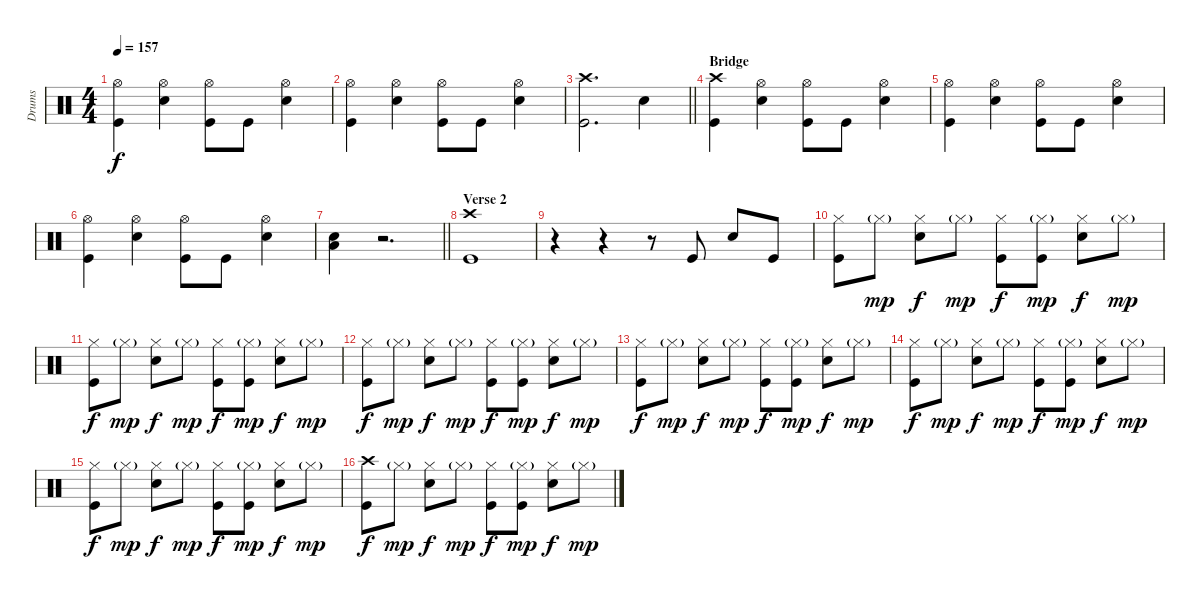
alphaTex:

\track ("Drums" "Drums") {instrument percussion}
\staff {score}
\articulation defaults
\ts (4 4)
\tempo 157
\clef neutral
\ks c
("Hi-Hat (open)" "Kick (hit)").4{dy f} ("Hi-Hat (open)" "Snare (hit) 2").4 ("Hi-Hat (open)" "Kick (hit)").8 "Kick (hit)".8 ("Hi-Hat (open)" "Snare (hit) 2").4 |
("Hi-Hat (open)" "Kick (hit)").4 ("Hi-Hat (open)" "Snare (hit) 2").4 ("Hi-Hat (open)" "Kick (hit)").8 "Kick (hit)".8 ("Hi-Hat (open)" "Snare (hit) 2").4 |
\barLineRight lightlight
("Crash high (hit)" "Kick (hit)").2{d} "Snare (hit) 2".4 |
\section ("" "Bridge")
("Crash high (hit)" "Kick (hit)").4 ("Hi-Hat (open)" "Snare (hit) 2").4 ("Hi-Hat (open)" "Kick (hit)").8 "Kick (hit)".8 ("Hi-Hat (open)" "Snare (hit) 2").4 |
("Hi-Hat (open)" "Kick (hit)").4 ("Hi-Hat (open)" "Snare (hit) 2").4 ("Hi-Hat (open)" "Kick (hit)").8 "Kick (hit)".8 ("Hi-Hat (open)" "Snare (hit) 2").4 |
("Hi-Hat (open)" "Kick (hit)").4 ("Hi-Hat (open)" "Snare (hit) 2").4 ("Hi-Hat (open)" "Kick (hit)").8 "Kick (hit)".8 ("Hi-Hat (open)" "Snare (hit) 2").4 |
\barLineRight lightlight
("Snare (hit) 2" "Low Floor Tom (hit)").4 r.2{d} |
\section ("" "Verse 2")
("Crash high (hit)" "Kick (hit)").1 |
r.4 r.4 r.8 "Kick (hit)".8 "Snare (hit) 2".8 "Kick (hit)".8 |
("Hi-Hat (closed)" "Kick (hit)").8 "Hi-Hat (closed)"{g}.8{dy mp} ("Hi-Hat (closed)" "Snare (hit) 2").8{dy f} "Hi-Hat (closed)"{g}.8{dy mp} ("Hi-Hat (closed)" "Kick (hit)").8{dy f} ("Hi-Hat (closed)"{g} "Kick (hit)").8{dy mp} ("Hi-Hat (closed)" "Snare (hit) 2").8{dy f} "Hi-Hat (closed)"{g}.8{dy mp} |
("Hi-Hat (closed)" "Kick (hit)").8{dy f} "Hi-Hat (closed)"{g}.8{dy mp} ("Hi-Hat (closed)" "Snare (hit) 2").8{dy f} "Hi-Hat (closed)"{g}.8{dy mp} ("Hi-Hat (closed)" "Kick (hit)").8{dy f} ("Hi-Hat (closed)"{g} "Kick (hit)").8{dy mp} ("Hi-Hat (closed)" "Snare (hit) 2").8{dy f} "Hi-Hat (closed)"{g}.8{dy mp} |
("Hi-Hat (closed)" "Kick (hit)").8{dy f} "Hi-Hat (closed)"{g}.8{dy mp} ("Hi-Hat (closed)" "Snare (hit) 2").8{dy f} "Hi-Hat (closed)"{g}.8{dy mp} ("Hi-Hat (closed)" "Kick (hit)").8{dy f} ("Hi-Hat (closed)"{g} "Kick (hit)").8{dy mp} ("Hi-Hat (closed)" "Snare (hit) 2").8{dy f} "Hi-Hat (closed)"{g}.8{dy mp} |
("Hi-Hat (closed)" "Kick (hit)").8{dy f} "Hi-Hat (closed)"{g}.8{dy mp} ("Hi-Hat (closed)" "Snare (hit) 2").8{dy f} "Hi-Hat (closed)"{g}.8{dy mp} ("Hi-Hat (closed)" "Kick (hit)").8{dy f} ("Hi-Hat (closed)"{g} "Kick (hit)").8{dy mp} ("Hi-Hat (closed)" "Snare (hit) 2").8{dy f} "Hi-Hat (closed)"{g}.8{dy mp} |
("Hi-Hat (closed)" "Kick (hit)").8{dy f} "Hi-Hat (closed)"{g}.8{dy mp} ("Hi-Hat (closed)" "Snare (hit) 2").8{dy f} "Hi-Hat (closed)"{g}.8{dy mp} ("Hi-Hat (closed)" "Kick (hit)").8{dy f} ("Hi-Hat (closed)"{g} "Kick (hit)").8{dy mp} ("Hi-Hat (closed)" "Snare (hit) 2").8{dy f} "Hi-Hat (closed)"{g}.8{dy mp} |
("Hi-Hat (closed)" "Kick (hit)").8{dy f} "Hi-Hat (closed)"{g}.8{dy mp} ("Hi-Hat (closed)" "Snare (hit) 2").8{dy f} "Hi-Hat (closed)"{g}.8{dy mp} ("Hi-Hat (closed)" "Kick (hit)").8{dy f} ("Hi-Hat (closed)"{g} "Kick (hit)").8{dy mp} ("Hi-Hat (closed)" "Snare (hit) 2").8{dy f} "Hi-Hat (closed)"{g}.8{dy mp} |
("Crash high (hit)" "Kick (hit)").8{dy f} "Hi-Hat (closed)"{g}.8{dy mp} ("Hi-Hat (closed)" "Snare (hit) 2").8{dy f} "Hi-Hat (closed)"{g}.8{dy mp} ("Hi-Hat (closed)" "Kick (hit)").8{dy f} ("Hi-Hat (closed)"{g} "Kick (hit)").8{dy mp} ("Hi-Hat (closed)" "Snare (hit) 2").8{dy f} "Hi-Hat (closed)"{g}.8{dy mp}
